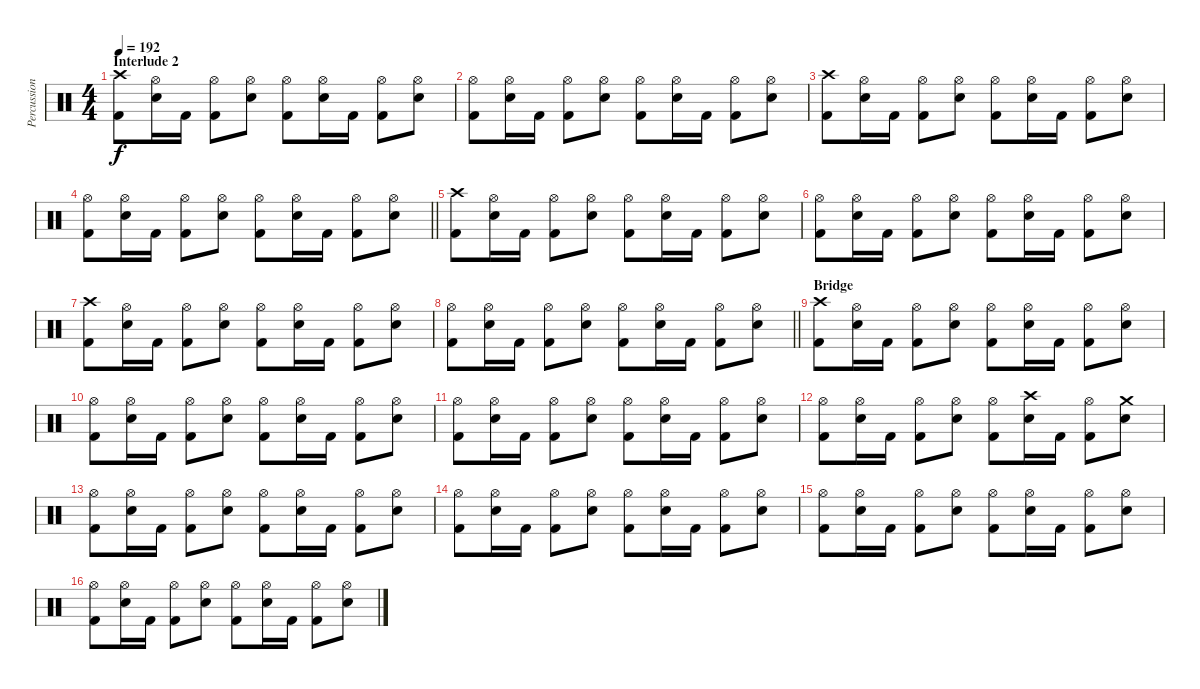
\track ("Percussion" "Percussion") {instrument percussion}
\staff {score}
\articulation defaults
\ts (4 4)
\section ("" "Interlude 2")
\tempo 192
\clef neutral
\ks c
("Crash high (hit)" "Kick (hit) 2").8{dy f} ("Hi-Hat (open)" "Electric Snare (hit)").16 "Kick (hit) 2".16 ("Hi-Hat (open)" "Kick (hit) 2").8 ("Hi-Hat (open)" "Electric Snare (hit)").8 ("Hi-Hat (open)" "Kick (hit) 2").8 ("Hi-Hat (open)" "Electric Snare (hit)").16 "Kick (hit) 2".16 ("Hi-Hat (open)" "Kick (hit) 2").8 ("Hi-Hat (open)" "Electric Snare (hit)").8 |
("Hi-Hat (open)" "Kick (hit) 2").8 ("Hi-Hat (open)" "Electric Snare (hit)").16 "Kick (hit) 2".16 ("Hi-Hat (open)" "Kick (hit) 2").8 ("Hi-Hat (open)" "Electric Snare (hit)").8 ("Hi-Hat (open)" "Kick (hit) 2").8 ("Hi-Hat (open)" "Electric Snare (hit)").16 "Kick (hit) 2".16 ("Hi-Hat (open)" "Kick (hit) 2").8 ("Hi-Hat (open)" "Electric Snare (hit)").8 |
("Crash high (hit)" "Kick (hit) 2").8 ("Hi-Hat (open)" "Electric Snare (hit)").16 "Kick (hit) 2".16 ("Hi-Hat (open)" "Kick (hit) 2").8 ("Hi-Hat (open)" "Electric Snare (hit)").8 ("Hi-Hat (open)" "Kick (hit) 2").8 ("Hi-Hat (open)" "Electric Snare (hit)").16 "Kick (hit) 2".16 ("Hi-Hat (open)" "Kick (hit) 2").8 ("Hi-Hat (open)" "Electric Snare (hit)").8 |
\barLineRight lightlight
("Hi-Hat (open)" "Kick (hit) 2").8 ("Hi-Hat (open)" "Electric Snare (hit)").16 "Kick (hit) 2".16 ("Hi-Hat (open)" "Kick (hit) 2").8 ("Hi-Hat (open)" "Electric Snare (hit)").8 ("Hi-Hat (open)" "Kick (hit) 2").8 ("Hi-Hat (open)" "Electric Snare (hit)").16 "Kick (hit) 2".16 ("Hi-Hat (open)" "Kick (hit) 2").8 ("Hi-Hat (open)" "Electric Snare (hit)").8 |
("Crash high (hit)" "Kick (hit) 2").8 ("Hi-Hat (open)" "Electric Snare (hit)").16 "Kick (hit) 2".16 ("Hi-Hat (open)" "Kick (hit) 2").8 ("Hi-Hat (open)" "Electric Snare (hit)").8 ("Hi-Hat (open)" "Kick (hit) 2").8 ("Hi-Hat (open)" "Electric Snare (hit)").16 "Kick (hit) 2".16 ("Hi-Hat (open)" "Kick (hit) 2").8 ("Hi-Hat (open)" "Electric Snare (hit)").8 |
("Hi-Hat (open)" "Kick (hit) 2").8 ("Hi-Hat (open)" "Electric Snare (hit)").16 "Kick (hit) 2".16 ("Hi-Hat (open)" "Kick (hit) 2").8 ("Hi-Hat (open)" "Electric Snare (hit)").8 ("Hi-Hat (open)" "Kick (hit) 2").8 ("Hi-Hat (open)" "Electric Snare (hit)").16 "Kick (hit) 2".16 ("Hi-Hat (open)" "Kick (hit) 2").8 ("Hi-Hat (open)" "Electric Snare (hit)").8 |
("Crash high (hit)" "Kick (hit) 2").8 ("Hi-Hat (open)" "Electric Snare (hit)").16 "Kick (hit) 2".16 ("Hi-Hat (open)" "Kick (hit) 2").8 ("Hi-Hat (open)" "Electric Snare (hit)").8 ("Hi-Hat (open)" "Kick (hit) 2").8 ("Hi-Hat (open)" "Electric Snare (hit)").16 "Kick (hit) 2".16 ("Hi-Hat (open)" "Kick (hit) 2").8 ("Hi-Hat (open)" "Electric Snare (hit)").8 |
\barLineRight lightlight
("Hi-Hat (open)" "Kick (hit) 2").8 ("Hi-Hat (open)" "Electric Snare (hit)").16 "Kick (hit) 2".16 ("Hi-Hat (open)" "Kick (hit) 2").8 ("Hi-Hat (open)" "Electric Snare (hit)").8 ("Hi-Hat (open)" "Kick (hit) 2").8 ("Hi-Hat (open)" "Electric Snare (hit)").16 "Kick (hit) 2".16 ("Hi-Hat (open)" "Kick (hit) 2").8 ("Hi-Hat (open)" "Electric Snare (hit)").8 |
\section ("" "Bridge")
("Crash high (hit)" "Kick (hit) 2").8 ("Hi-Hat (open)" "Electric Snare (hit)").16 "Kick (hit) 2".16 ("Hi-Hat (open)" "Kick (hit) 2").8 ("Hi-Hat (open)" "Electric Snare (hit)").8 ("Hi-Hat (open)" "Kick (hit) 2").8 ("Hi-Hat (open)" "Electric Snare (hit)").16 "Kick (hit) 2".16 ("Hi-Hat (open)" "Kick (hit) 2").8 ("Hi-Hat (open)" "Electric Snare (hit)").8 |
("Hi-Hat (open)" "Kick (hit) 2").8 ("Hi-Hat (open)" "Electric Snare (hit)").16 "Kick (hit) 2".16 ("Hi-Hat (open)" "Kick (hit) 2").8 ("Hi-Hat (open)" "Electric Snare (hit)").8 ("Hi-Hat (open)" "Kick (hit) 2").8 ("Hi-Hat (open)" "Electric Snare (hit)").16 "Kick (hit) 2".16 ("Hi-Hat (open)" "Kick (hit) 2").8 ("Hi-Hat (open)" "Electric Snare (hit)").8 |
("Hi-Hat (open)" "Kick (hit) 2").8 ("Hi-Hat (open)" "Electric Snare (hit)").16 "Kick (hit) 2".16 ("Hi-Hat (open)" "Kick (hit) 2").8 ("Hi-Hat (open)" "Electric Snare (hit)").8 ("Hi-Hat (open)" "Kick (hit) 2").8 ("Hi-Hat (open)" "Electric Snare (hit)").16 "Kick (hit) 2".16 ("Hi-Hat (open)" "Kick (hit) 2").8 ("Hi-Hat (open)" "Electric Snare (hit)").8 |
("Hi-Hat (open)" "Kick (hit) 2").8 ("Hi-Hat (open)" "Electric Snare (hit)").16 "Kick (hit) 2".16 ("Hi-Hat (open)" "Kick (hit) 2").8 ("Hi-Hat (open)" "Electric Snare (hit)").8 ("Hi-Hat (open)" "Kick (hit) 2").8 ("Crash high (hit)" "Electric Snare (hit)").16 "Kick (hit) 2".16 ("Hi-Hat (open)" "Kick (hit) 2").8 ("Crash medium (hit)" "Electric Snare (hit)").8 |
("Hi-Hat (open)" "Kick (hit) 2").8 ("Hi-Hat (open)" "Electric Snare (hit)").16 "Kick (hit) 2".16 ("Hi-Hat (open)" "Kick (hit) 2").8 ("Hi-Hat (open)" "Electric Snare (hit)").8 ("Hi-Hat (open)" "Kick (hit) 2").8 ("Hi-Hat (open)" "Electric Snare (hit)").16 "Kick (hit) 2".16 ("Hi-Hat (open)" "Kick (hit) 2").8 ("Hi-Hat (open)" "Electric Snare (hit)").8 |
("Hi-Hat (open)" "Kick (hit) 2").8 ("Hi-Hat (open)" "Electric Snare (hit)").16 "Kick (hit) 2".16 ("Hi-Hat (open)" "Kick (hit) 2").8 ("Hi-Hat (open)" "Electric Snare (hit)").8 ("Hi-Hat (open)" "Kick (hit) 2").8 ("Hi-Hat (open)" "Electric Snare (hit)").16 "Kick (hit) 2".16 ("Hi-Hat (open)" "Kick (hit) 2").8 ("Hi-Hat (open)" "Electric Snare (hit)").8 |
("Hi-Hat (open)" "Kick (hit) 2").8 ("Hi-Hat (open)" "Electric Snare (hit)").16 "Kick (hit) 2".16 ("Hi-Hat (open)" "Kick (hit) 2").8 ("Hi-Hat (open)" "Electric Snare (hit)").8 ("Hi-Hat (open)" "Kick (hit) 2").8 ("Hi-Hat (open)" "Electric Snare (hit)").16 "Kick (hit) 2".16 ("Hi-Hat (open)" "Kick (hit) 2").8 ("Hi-Hat (open)" "Electric Snare (hit)").8 |
("Hi-Hat (open)" "Kick (hit) 2").8 ("Hi-Hat (open)" "Electric Snare (hit)").16 "Kick (hit) 2".16 ("Hi-Hat (open)" "Kick (hit) 2").8 ("Hi-Hat (open)" "Electric Snare (hit)").8 ("Hi-Hat (open)" "Kick (hit) 2").8 ("Hi-Hat (open)" "Electric Snare (hit)").16 "Kick (hit) 2".16 ("Hi-Hat (open)" "Kick (hit) 2").8 ("Hi-Hat (open)" "Electric Snare (hit)").8
